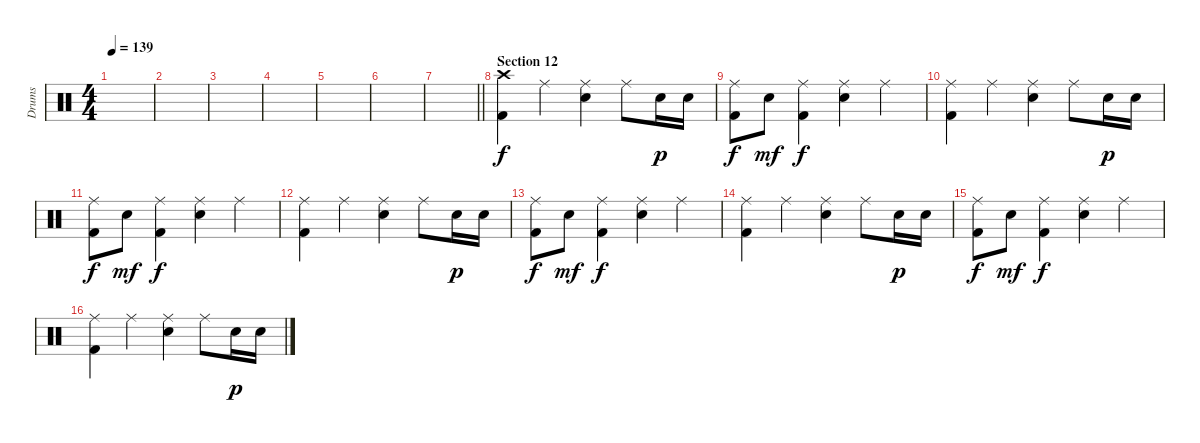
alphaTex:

\track ("Drums" "Drums") {instrument percussion}
\staff {score}
\articulation defaults
\ts (4 4)
\tempo 139
\clef neutral
\ks c
|
|
|
|
|
|
\barLineRight lightlight
|
\section ("" "Section 12")
("Crash high (hit)" "Kick (hit) 2").4{dy f} "Ride (middle)".4 ("Ride (middle)" "Electric Snare (hit)").4 "Ride (middle)".8 "Electric Snare (hit)".16{dy p} "Electric Snare (hit)".16 |
("Ride (middle)" "Kick (hit) 2").8{dy f} "Electric Snare (hit)".8{dy mf} ("Ride (middle)" "Kick (hit) 2").4{dy f} ("Ride (middle)" "Electric Snare (hit)").4 "Ride (middle)".4 |
("Ride (middle)" "Kick (hit) 2").4 "Ride (middle)".4 ("Ride (middle)" "Electric Snare (hit)").4 "Ride (middle)".8 "Electric Snare (hit)".16{dy p} "Electric Snare (hit)".16 |
("Ride (middle)" "Kick (hit) 2").8{dy f} "Electric Snare (hit)".8{dy mf} ("Ride (middle)" "Kick (hit) 2").4{dy f} ("Ride (middle)" "Electric Snare (hit)").4 "Ride (middle)".4 |
("Ride (middle)" "Kick (hit) 2").4 "Ride (middle)".4 ("Ride (middle)" "Electric Snare (hit)").4 "Ride (middle)".8 "Electric Snare (hit)".16{dy p} "Electric Snare (hit)".16 |
("Ride (middle)" "Kick (hit) 2").8{dy f} "Electric Snare (hit)".8{dy mf} ("Ride (middle)" "Kick (hit) 2").4{dy f} ("Ride (middle)" "Electric Snare (hit)").4 "Ride (middle)".4 |
("Ride (middle)" "Kick (hit) 2").4 "Ride (middle)".4 ("Ride (middle)" "Electric Snare (hit)").4 "Ride (middle)".8 "Electric Snare (hit)".16{dy p} "Electric Snare (hit)".16 |
("Ride (middle)" "Kick (hit) 2").8{dy f} "Electric Snare (hit)".8{dy mf} ("Ride (middle)" "Kick (hit) 2").4{dy f} ("Ride (middle)" "Electric Snare (hit)").4 "Ride (middle)".4 |
("Ride (middle)" "Kick (hit) 2").4 "Ride (middle)".4 ("Ride (middle)" "Electric Snare (hit)").4 "Ride (middle)".8 "Electric Snare (hit)".16{dy p} "Electric Snare (hit)".16
